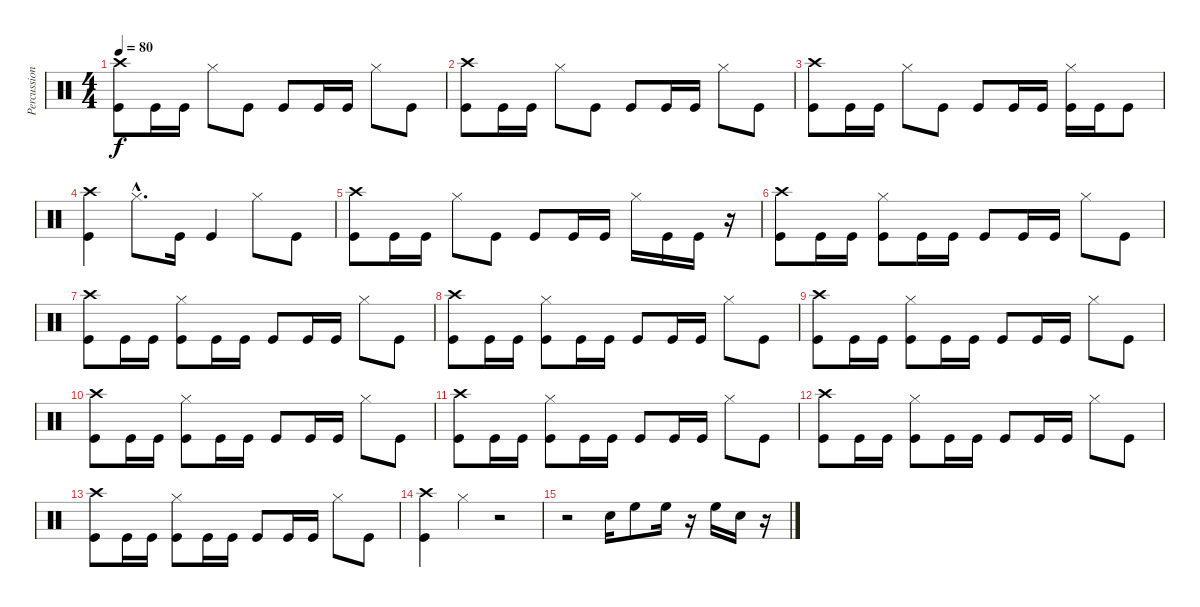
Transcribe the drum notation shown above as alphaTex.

\track ("Percussion" "Percussion") {instrument percussion}
\staff {score}
\articulation defaults
\ts (4 4)
\tempo 80
\clef neutral
\ks c
("Crash high (hit)" "Kick (hit)").8{dy f} "Kick (hit)".16 "Kick (hit)".16 "Hi-Hat (closed)".8 "Kick (hit)".8 "Kick (hit)".8 "Kick (hit)".16 "Kick (hit)".16 "Hi-Hat (closed)".8 "Kick (hit)".8 |
("Crash high (hit)" "Kick (hit)").8 "Kick (hit)".16 "Kick (hit)".16 "Hi-Hat (closed)".8 "Kick (hit)".8 "Kick (hit)".8 "Kick (hit)".16 "Kick (hit)".16 "Hi-Hat (closed)".8 "Kick (hit)".8 |
("Crash high (hit)" "Kick (hit)").8 "Kick (hit)".16 "Kick (hit)".16 "Hi-Hat (closed)".8 "Kick (hit)".8 "Kick (hit)".8 "Kick (hit)".16 "Kick (hit)".16 ("Hi-Hat (closed)" "Kick (hit)").16 "Kick (hit)".16 "Kick (hit)".8 |
("Crash high (hit)" "Kick (hit)").4 "Hi-Hat (closed)"{hac}.8{d} "Kick (hit)".16 "Kick (hit)".4 "Hi-Hat (closed)".8 "Kick (hit)".8 |
("Crash high (hit)" "Kick (hit)").8 "Kick (hit)".16 "Kick (hit)".16 "Hi-Hat (closed)".8 "Kick (hit)".8 "Kick (hit)".8 "Kick (hit)".16 "Kick (hit)".16 "Hi-Hat (closed)".16 "Kick (hit)".16 "Kick (hit)".16 r.16 |
("Crash high (hit)" "Kick (hit)").8 "Kick (hit)".16 "Kick (hit)".16 ("Hi-Hat (closed)" "Kick (hit)").8 "Kick (hit)".16 "Kick (hit)".16 "Kick (hit)".8 "Kick (hit)".16 "Kick (hit)".16 "Hi-Hat (closed)".8 "Kick (hit)".8 |
("Crash high (hit)" "Kick (hit)").8 "Kick (hit)".16 "Kick (hit)".16 ("Hi-Hat (closed)" "Kick (hit)").8 "Kick (hit)".16 "Kick (hit)".16 "Kick (hit)".8 "Kick (hit)".16 "Kick (hit)".16 "Hi-Hat (closed)".8 "Kick (hit)".8 |
("Crash high (hit)" "Kick (hit)").8 "Kick (hit)".16 "Kick (hit)".16 ("Hi-Hat (closed)" "Kick (hit)").8 "Kick (hit)".16 "Kick (hit)".16 "Kick (hit)".8 "Kick (hit)".16 "Kick (hit)".16 "Hi-Hat (closed)".8 "Kick (hit)".8 |
("Crash high (hit)" "Kick (hit)").8 "Kick (hit)".16 "Kick (hit)".16 ("Hi-Hat (closed)" "Kick (hit)").8 "Kick (hit)".16 "Kick (hit)".16 "Kick (hit)".8 "Kick (hit)".16 "Kick (hit)".16 "Hi-Hat (closed)".8 "Kick (hit)".8 |
("Crash high (hit)" "Kick (hit)").8 "Kick (hit)".16 "Kick (hit)".16 ("Hi-Hat (closed)" "Kick (hit)").8 "Kick (hit)".16 "Kick (hit)".16 "Kick (hit)".8 "Kick (hit)".16 "Kick (hit)".16 "Hi-Hat (closed)".8 "Kick (hit)".8 |
("Crash high (hit)" "Kick (hit)").8 "Kick (hit)".16 "Kick (hit)".16 ("Hi-Hat (closed)" "Kick (hit)").8 "Kick (hit)".16 "Kick (hit)".16 "Kick (hit)".8 "Kick (hit)".16 "Kick (hit)".16 "Hi-Hat (closed)".8 "Kick (hit)".8 |
("Crash high (hit)" "Kick (hit)").8 "Kick (hit)".16 "Kick (hit)".16 ("Hi-Hat (closed)" "Kick (hit)").8 "Kick (hit)".16 "Kick (hit)".16 "Kick (hit)".8 "Kick (hit)".16 "Kick (hit)".16 "Hi-Hat (closed)".8 "Kick (hit)".8 |
("Crash high (hit)" "Kick (hit)").8 "Kick (hit)".16 "Kick (hit)".16 ("Hi-Hat (closed)" "Kick (hit)").8 "Kick (hit)".16 "Kick (hit)".16 "Kick (hit)".8 "Kick (hit)".16 "Kick (hit)".16 "Hi-Hat (closed)".8 "Kick (hit)".8 |
("Crash high (hit)" "Kick (hit)").4 "Hi-Hat (closed)".4 r.2 |
r.2 "Snare (hit) 2".16 "High Floor Tom (hit)".8 "High Floor Tom (hit)".16 r.16 "High Floor Tom (hit)".16 "Snare (hit) 2".16 r.16
